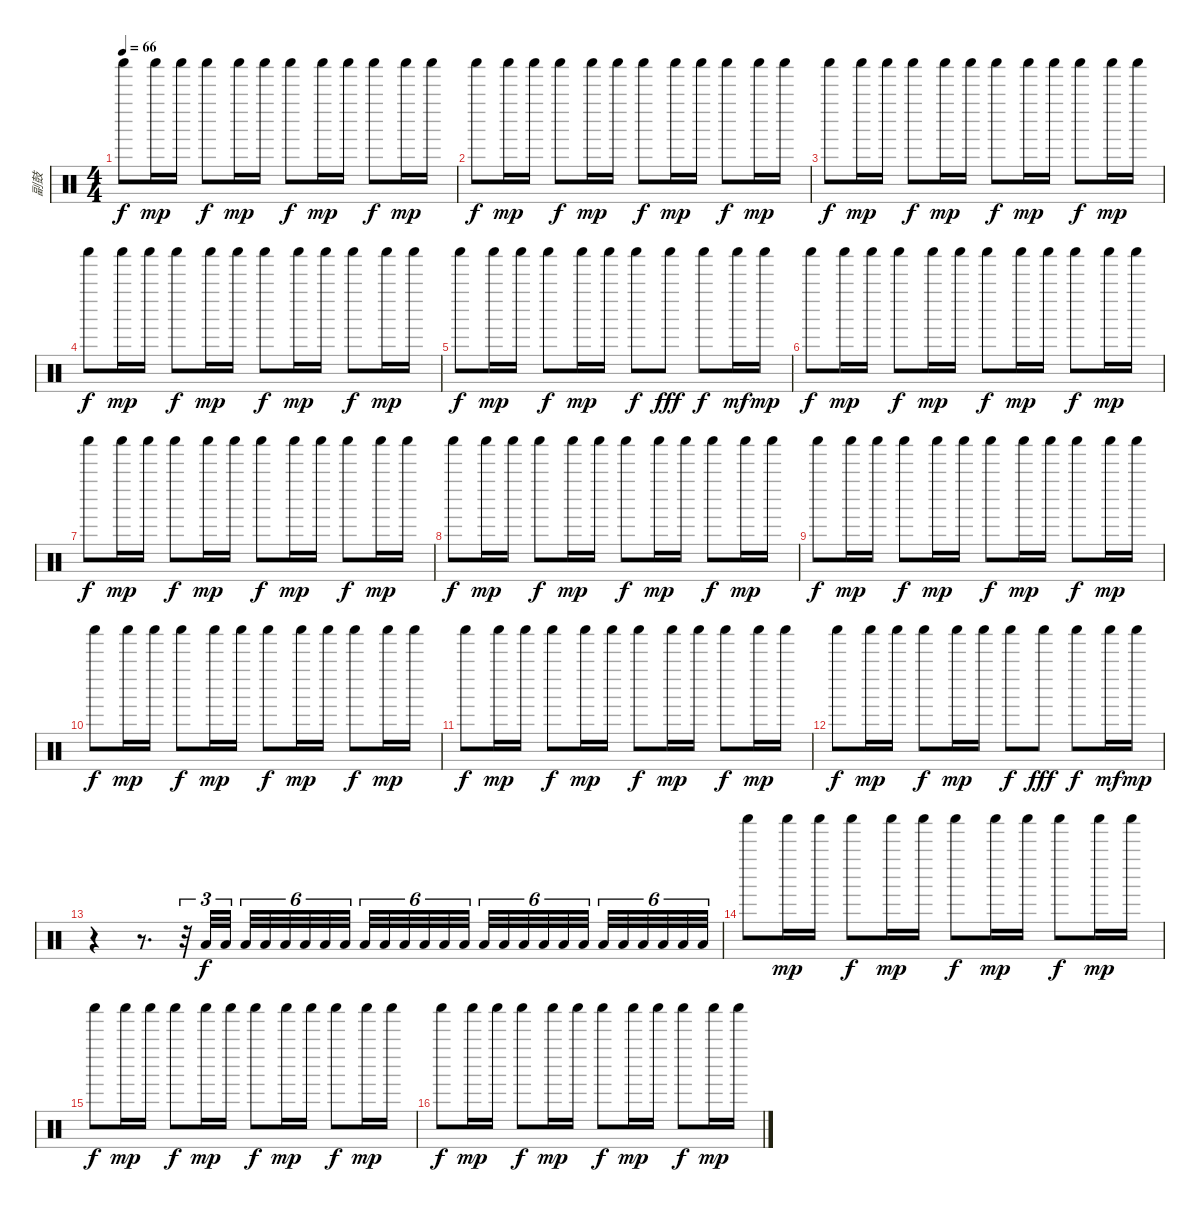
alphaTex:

\track ("副鼓" "副鼓") {instrument percussion}
\staff {score}
\articulation defaults
\ts (4 4)
\tempo 66
\clef neutral
\ks c "Shaker (hit)".8{dy f} "Shaker (hit)".16{dy mp} "Shaker (hit)".16 "Shaker (hit)".8{dy f} "Shaker (hit)".16{dy mp} "Shaker (hit)".16 "Shaker (hit)".8{dy f} "Shaker (hit)".16{dy mp} "Shaker (hit)".16 "Shaker (hit)".8{dy f} "Shaker (hit)".16{dy mp} "Shaker (hit)".16
|
"Shaker (hit)".8{dy f} "Shaker (hit)".16{dy mp} "Shaker (hit)".16 "Shaker (hit)".8{dy f} "Shaker (hit)".16{dy mp} "Shaker (hit)".16 "Shaker (hit)".8{dy f} "Shaker (hit)".16{dy mp} "Shaker (hit)".16 "Shaker (hit)".8{dy f} "Shaker (hit)".16{dy mp} "Shaker (hit)".16 |
"Shaker (hit)".8{dy f} "Shaker (hit)".16{dy mp} "Shaker (hit)".16 "Shaker (hit)".8{dy f} "Shaker (hit)".16{dy mp} "Shaker (hit)".16 "Shaker (hit)".8{dy f} "Shaker (hit)".16{dy mp} "Shaker (hit)".16 "Shaker (hit)".8{dy f} "Shaker (hit)".16{dy mp} "Shaker (hit)".16 |
"Shaker (hit)".8{dy f} "Shaker (hit)".16{dy mp} "Shaker (hit)".16 "Shaker (hit)".8{dy f} "Shaker (hit)".16{dy mp} "Shaker (hit)".16 "Shaker (hit)".8{dy f} "Shaker (hit)".16{dy mp} "Shaker (hit)".16 "Shaker (hit)".8{dy f} "Shaker (hit)".16{dy mp} "Shaker (hit)".16 |
"Shaker (hit)".8{dy f} "Shaker (hit)".16{dy mp} "Shaker (hit)".16 "Shaker (hit)".8{dy f} "Shaker (hit)".16{dy mp} "Shaker (hit)".16 "Shaker (hit)".8{dy f} "Shaker (hit)".8{dy fff} "Shaker (hit)".8{dy f} "Shaker (hit)".16{dy mf} "Shaker (hit)".16{dy mp} |
"Shaker (hit)".8{dy f} "Shaker (hit)".16{dy mp} "Shaker (hit)".16 "Shaker (hit)".8{dy f} "Shaker (hit)".16{dy mp} "Shaker (hit)".16 "Shaker (hit)".8{dy f} "Shaker (hit)".16{dy mp} "Shaker (hit)".16 "Shaker (hit)".8{dy f} "Shaker (hit)".16{dy mp} "Shaker (hit)".16 |
"Shaker (hit)".8{dy f} "Shaker (hit)".16{dy mp} "Shaker (hit)".16 "Shaker (hit)".8{dy f} "Shaker (hit)".16{dy mp} "Shaker (hit)".16 "Shaker (hit)".8{dy f} "Shaker (hit)".16{dy mp} "Shaker (hit)".16 "Shaker (hit)".8{dy f} "Shaker (hit)".16{dy mp} "Shaker (hit)".16 |
"Shaker (hit)".8{dy f} "Shaker (hit)".16{dy mp} "Shaker (hit)".16 "Shaker (hit)".8{dy f} "Shaker (hit)".16{dy mp} "Shaker (hit)".16 "Shaker (hit)".8{dy f} "Shaker (hit)".16{dy mp} "Shaker (hit)".16 "Shaker (hit)".8{dy f} "Shaker (hit)".16{dy mp} "Shaker (hit)".16 |
"Shaker (hit)".8{dy f} "Shaker (hit)".16{dy mp} "Shaker (hit)".16 "Shaker (hit)".8{dy f} "Shaker (hit)".16{dy mp} "Shaker (hit)".16 "Shaker (hit)".8{dy f} "Shaker (hit)".16{dy mp} "Shaker (hit)".16 "Shaker (hit)".8{dy f} "Shaker (hit)".16{dy mp} "Shaker (hit)".16 |
"Shaker (hit)".8{dy f} "Shaker (hit)".16{dy mp} "Shaker (hit)".16 "Shaker (hit)".8{dy f} "Shaker (hit)".16{dy mp} "Shaker (hit)".16 "Shaker (hit)".8{dy f} "Shaker (hit)".16{dy mp} "Shaker (hit)".16 "Shaker (hit)".8{dy f} "Shaker (hit)".16{dy mp} "Shaker (hit)".16 |
"Shaker (hit)".8{dy f} "Shaker (hit)".16{dy mp} "Shaker (hit)".16 "Shaker (hit)".8{dy f} "Shaker (hit)".16{dy mp} "Shaker (hit)".16 "Shaker (hit)".8{dy f} "Shaker (hit)".16{dy mp} "Shaker (hit)".16 "Shaker (hit)".8{dy f} "Shaker (hit)".16{dy mp} "Shaker (hit)".16 |
"Shaker (hit)".8{dy f} "Shaker (hit)".16{dy mp} "Shaker (hit)".16 "Shaker (hit)".8{dy f} "Shaker (hit)".16{dy mp} "Shaker (hit)".16 "Shaker (hit)".8{dy f} "Shaker (hit)".8{dy fff} "Shaker (hit)".8{dy f} "Shaker (hit)".16{dy mf} "Shaker (hit)".16{dy mp} |
r.4 r.8{d} r.32{tu (3 2)} "Low Floor Tom (hit)".32{tu (3 2) dy f volume 8} "Low Floor Tom (hit)".32{tu (3 2)} "Low Floor Tom (hit)".32{tu (6 4) volume 10 balance 12} "Low Floor Tom (hit)".32{tu (6 4)} "Low Floor Tom (hit)".32{tu (6 4)} "Low Floor Tom (hit)".32{tu (6 4)} "Low Floor Tom (hit)".32{tu (6 4)} "Low Floor Tom (hit)".32{tu (6 4)} "Low Floor Tom (hit)".32{tu (6 4)} "Low Floor Tom (hit)".32{tu (6 4)} "Low Floor Tom (hit)".32{tu (6 4)} "Low Floor Tom (hit)".32{tu (6 4)} "Low Floor Tom (hit)".32{tu (6 4)} "Low Floor Tom (hit)".32{tu (6 4)} "Low Floor Tom (hit)".32{tu (6 4) volume 11} "Low Floor Tom (hit)".32{tu (6 4)} "Low Floor Tom (hit)".32{tu (6 4)} "Low Floor Tom (hit)".32{tu (6 4)} "Low Floor Tom (hit)".32{tu (6 4)} "Low Floor Tom (hit)".32{tu (6 4)} "Low Floor Tom (hit)".32{tu (6 4)} "Low Floor Tom (hit)".32{tu (6 4)} "Low Floor Tom (hit)".32{tu (6 4)} "Low Floor Tom (hit)".32{tu (6 4)} "Low Floor Tom (hit)".32{tu (6 4)} "Low Floor Tom (hit)".32{tu (6 4)} |
"Shaker (hit)".8 "Shaker (hit)".16{dy mp} "Shaker (hit)".16 "Shaker (hit)".8{dy f} "Shaker (hit)".16{dy mp} "Shaker (hit)".16 "Shaker (hit)".8{dy f} "Shaker (hit)".16{dy mp} "Shaker (hit)".16 "Shaker (hit)".8{dy f} "Shaker (hit)".16{dy mp} "Shaker (hit)".16 |
"Shaker (hit)".8{dy f} "Shaker (hit)".16{dy mp} "Shaker (hit)".16 "Shaker (hit)".8{dy f} "Shaker (hit)".16{dy mp} "Shaker (hit)".16 "Shaker (hit)".8{dy f} "Shaker (hit)".16{dy mp} "Shaker (hit)".16 "Shaker (hit)".8{dy f} "Shaker (hit)".16{dy mp} "Shaker (hit)".16 |
"Shaker (hit)".8{dy f} "Shaker (hit)".16{dy mp} "Shaker (hit)".16 "Shaker (hit)".8{dy f} "Shaker (hit)".16{dy mp} "Shaker (hit)".16 "Shaker (hit)".8{dy f} "Shaker (hit)".16{dy mp} "Shaker (hit)".16 "Shaker (hit)".8{dy f} "Shaker (hit)".16{dy mp} "Shaker (hit)".16
